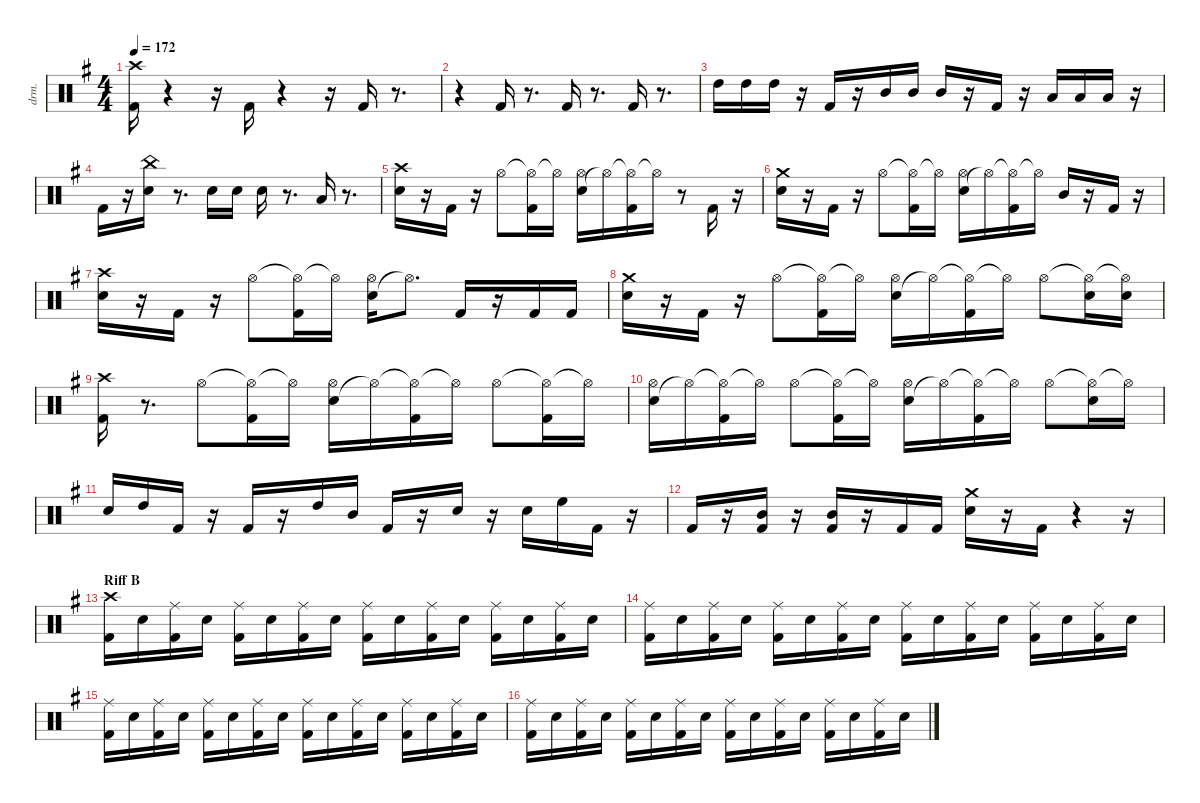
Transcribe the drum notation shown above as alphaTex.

\defaultSystemsLayout 4
\hideDynamics
\bracketExtendMode nobrackets
\otherSystemsTrackNameOrientation horizontal
\track ("Shinya" "drm.") {instrument percussion}
\staff {score}
\articulation defaults
\ts (4 4)
\tempo 172
\clef neutral
\ks eminor
("Kick (hit) 2"{acc forcenatural} "Crash high (hit)"{acc #}).16{dy fff beam Down} r.4{beam Down} r.16{beam Down} "Kick (hit) 2"{acc forcenatural}.16{beam Up} r.4{beam Up} r.16{beam Up} "Kick (hit) 2"{acc forcenatural}.16{beam Up} r.8{d beam Up} |
r.4{beam Down} "Kick (hit) 2"{acc forcenatural}.16{beam Up} r.8{d beam Up} "Kick (hit) 2"{acc forcenatural}.16{beam Up} r.8{d beam Up} "Kick (hit) 2"{acc forcenatural}.16{beam Up} r.8{d beam Up} |
"High Tom (hit)"{acc forcenatural}.16{beam Down} "High Tom (hit)"{acc forcenatural}.16{beam Down} "High Tom (hit)"{acc forcenatural}.16{beam Down} r.16{beam Down} "Kick (hit) 2"{acc forcenatural}.16{beam Up} r.16{beam Up} "Mid Tom (hit)"{acc forcenatural}.16{beam Up} "Mid Tom (hit)"{acc forcenatural}.16{beam Up} "Mid Tom (hit)"{acc forcenatural}.16{beam Up} r.16{beam Up} "Kick (hit) 2"{acc forcenatural}.16{beam Up} r.16{beam Up} "Low Tom (hit)"{acc forcenatural}.16{beam Up} "Low Tom (hit)"{acc forcenatural}.16{beam Up} "Low Tom (hit)"{acc forcenatural}.16{beam Up} r.16{beam Up} |
"Kick (hit) 2"{acc forcenatural}.16{beam Down} r.16{beam Down} ("Snare (hit) 2"{acc forcenatural} "China (hit)"{acc forcenatural}).16{beam Down} r.8{d beam Down} "Snare (hit) 2"{acc forcenatural}.16{beam Down} "Snare (hit) 2"{acc forcenatural}.16{beam Down} "Snare (hit) 2"{acc forcenatural}.16{beam Down} r.8{d beam Down} "Low Tom (hit)"{acc forcenatural}.16{beam Up} r.8{d beam Up} |
("Snare (hit) 2"{acc forcenatural} "Crash high (hit)"{acc #}).16{beam Down} r.16{beam Down} "Kick (hit) 2"{acc forcenatural}.16{beam Down} r.16{beam Down} "Hi-Hat (open)"{acc #}.8{beam Down} ("Hi-Hat (open)"{t acc #} "Kick (hit) 2"{acc forcenatural}).16{beam Down} "Hi-Hat (open)"{t acc #}.16{beam Down} ("Snare (hit) 2"{acc forcenatural} "Hi-Hat (open)"{acc #}).16{beam Down} "Hi-Hat (open)"{t acc #}.16{beam Down} ("Hi-Hat (open)"{t acc #} "Kick (hit) 2"{acc forcenatural}).16{beam Down} "Hi-Hat (open)"{t acc #}.16{beam Down} r.8{beam Down} "Kick (hit) 2"{acc forcenatural}.16{beam Up} r.16{beam Up} |
("Snare (hit) 2"{acc forcenatural} "Crash medium (hit)"{acc forcenatural}).16{beam Down} r.16{beam Down} "Kick (hit) 2"{acc forcenatural}.16{beam Down} r.16{beam Down} "Hi-Hat (open)"{acc #}.8{beam Down} ("Hi-Hat (open)"{t acc #} "Kick (hit) 2"{acc forcenatural}).16{beam Down} "Hi-Hat (open)"{t acc #}.16{beam Down} ("Snare (hit) 2"{acc forcenatural} "Hi-Hat (open)"{acc #}).16{beam Down} "Hi-Hat (open)"{t acc #}.16{beam Down} ("Hi-Hat (open)"{t acc #} "Kick (hit) 2"{acc forcenatural}).16{beam Down} "Hi-Hat (open)"{t acc #}.16{beam Down} "Mid Tom (hit)"{acc forcenatural}.16{beam Up} r.16{beam Up} "Kick (hit) 2"{acc forcenatural}.16{beam Up} r.16{beam Up} |
("Snare (hit) 2"{acc forcenatural} "Crash high (hit)"{acc #}).16{beam Down} r.16{beam Down} "Kick (hit) 2"{acc forcenatural}.16{beam Down} r.16{beam Down} "Hi-Hat (open)"{acc #}.8{beam Down} ("Hi-Hat (open)"{t acc #} "Kick (hit) 2"{acc forcenatural}).16{beam Down} "Hi-Hat (open)"{t acc #}.16{beam Down} ("Snare (hit) 2"{acc forcenatural} "Hi-Hat (open)"{acc #}).16{beam Down} "Hi-Hat (open)"{t acc #}.8{d beam Down} "Kick (hit) 2"{acc forcenatural}.16{beam Up} r.16{beam Up} "Kick (hit) 2"{acc forcenatural}.16{beam Up} "Kick (hit) 2"{acc forcenatural}.16{beam Up} |
("Snare (hit) 2"{acc forcenatural} "Crash medium (hit)"{acc forcenatural}).16{beam Down} r.16{beam Down} "Kick (hit) 2"{acc forcenatural}.16{beam Down} r.16{beam Down} "Hi-Hat (open)"{acc #}.8{beam Down} ("Hi-Hat (open)"{t acc #} "Kick (hit) 2"{acc forcenatural}).16{beam Down} "Hi-Hat (open)"{t acc #}.16{beam Down} ("Snare (hit) 2"{acc forcenatural} "Hi-Hat (open)"{acc #}).16{beam Down} "Hi-Hat (open)"{t acc #}.16{beam Down} ("Hi-Hat (open)"{t acc #} "Kick (hit) 2"{acc forcenatural}).16{beam Down} "Hi-Hat (open)"{t acc #}.16{beam Down} "Hi-Hat (open)"{acc #}.8{beam Down} ("Hi-Hat (open)"{t acc #} "Snare (hit) 2"{acc forcenatural}).16{beam Down} ("Hi-Hat (open)"{t acc #} "Snare (hit) 2"{acc forcenatural}).16{beam Down} |
("Kick (hit) 2"{acc forcenatural} "Crash high (hit)"{acc #}).16{beam Down} r.8{d beam Down} "Hi-Hat (open)"{acc #}.8{beam Down} ("Hi-Hat (open)"{t acc #} "Kick (hit) 2"{acc forcenatural}).16{beam Down} "Hi-Hat (open)"{t acc #}.16{beam Down} ("Snare (hit) 2"{acc forcenatural} "Hi-Hat (open)"{acc #}).16{beam Down} "Hi-Hat (open)"{t acc #}.16{beam Down} ("Hi-Hat (open)"{t acc #} "Kick (hit) 2"{acc forcenatural}).16{beam Down} "Hi-Hat (open)"{t acc #}.16{beam Down} "Hi-Hat (open)"{acc #}.8{beam Down} ("Hi-Hat (open)"{t acc #} "Kick (hit) 2"{acc forcenatural}).16{beam Down} "Hi-Hat (open)"{t acc #}.16{beam Down} |
("Snare (hit) 2"{acc forcenatural} "Hi-Hat (open)"{acc #}).16{beam Down} "Hi-Hat (open)"{t acc #}.16{beam Down} ("Hi-Hat (open)"{t acc #} "Kick (hit) 2"{acc forcenatural}).16{beam Down} "Hi-Hat (open)"{t acc #}.16{beam Down} "Hi-Hat (open)"{acc #}.8{beam Down} ("Hi-Hat (open)"{t acc #} "Kick (hit) 2"{acc forcenatural}).16{beam Down} "Hi-Hat (open)"{t acc #}.16{beam Down} ("Snare (hit) 2"{acc forcenatural} "Hi-Hat (open)"{acc #}).16{beam Down} "Hi-Hat (open)"{t acc #}.16{beam Down} ("Hi-Hat (open)"{t acc #} "Kick (hit) 2"{acc forcenatural}).16{beam Down} "Hi-Hat (open)"{t acc #}.16{beam Down} "Hi-Hat (open)"{acc #}.8{beam Down} ("Hi-Hat (open)"{t acc #} "Snare (hit) 2"{acc forcenatural}).16{beam Down} "Hi-Hat (open)"{t acc #}.16{beam Down} |
"Snare (hit) 2"{acc forcenatural}.16{beam Up} "High Tom (hit)"{acc forcenatural}.16{beam Up} "Kick (hit) 2"{acc forcenatural}.16{beam Up} r.16{beam Up} "Kick (hit) 2"{acc forcenatural}.16{beam Up} r.16{beam Up} "High Tom (hit)"{acc forcenatural}.16{beam Up} "Mid Tom (hit)"{acc forcenatural}.16{beam Up} "Kick (hit) 2"{acc forcenatural}.16{beam Up} r.16{beam Up} "Snare (hit) 2"{acc forcenatural}.16{beam Up} r.16{beam Up} "Snare (hit) 2"{acc forcenatural}.16{beam Down} "High Floor Tom (hit)"{acc forcenatural}.16{beam Down} "Kick (hit) 2"{acc forcenatural}.16{beam Down} r.16{beam Down} |
"Kick (hit) 2"{acc forcenatural}.16{beam Up} r.16{beam Up} ("Kick (hit) 2"{acc forcenatural} "Mid Tom (hit)"{acc forcenatural}).16{beam Up} r.16{beam Up} ("Kick (hit) 2"{acc forcenatural} "Mid Tom (hit)"{acc forcenatural}).16{beam Up} r.16{beam Up} "Kick (hit) 2"{acc forcenatural}.16{beam Up} "Kick (hit) 2"{acc forcenatural}.16{beam Up} ("Snare (hit) 2"{acc forcenatural} "Crash medium (hit)"{acc forcenatural}).16{beam Down} r.16{beam Down} "Kick (hit) 2"{acc forcenatural}.16{beam Down} r.4{beam Down} r.16{beam Down} |
\section ("" "Riff B")
("Kick (hit) 2"{acc forcenatural} "Crash high (hit)"{acc #}).16{beam Down} "Snare (hit) 2"{acc forcenatural}.16{beam Down} ("Kick (hit) 2"{acc forcenatural} "Ride (middle)"{acc #}).16{beam Down} "Snare (hit) 2"{acc forcenatural}.16{beam Down} ("Kick (hit) 2"{acc forcenatural} "Ride (middle)"{acc #}).16{beam Down} "Snare (hit) 2"{acc forcenatural}.16{beam Down} ("Kick (hit) 2"{acc forcenatural} "Ride (middle)"{acc #}).16{beam Down} "Snare (hit) 2"{acc forcenatural}.16{beam Down} ("Kick (hit) 2"{acc forcenatural} "Ride (middle)"{acc #}).16{beam Down} "Snare (hit) 2"{acc forcenatural}.16{beam Down} ("Kick (hit) 2"{acc forcenatural} "Ride (middle)"{acc #}).16{beam Down} "Snare (hit) 2"{acc forcenatural}.16{beam Down} ("Kick (hit) 2"{acc forcenatural} "Ride (middle)"{acc #}).16{beam Down} "Snare (hit) 2"{acc forcenatural}.16{beam Down} ("Kick (hit) 2"{acc forcenatural} "Ride (middle)"{acc #}).16{beam Down} "Snare (hit) 2"{acc forcenatural}.16{beam Down} |
("Kick (hit) 2"{acc forcenatural} "Ride (middle)"{acc #}).16{beam Down} "Snare (hit) 2"{acc forcenatural}.16{beam Down} ("Kick (hit) 2"{acc forcenatural} "Ride (middle)"{acc #}).16{beam Down} "Snare (hit) 2"{acc forcenatural}.16{beam Down} ("Kick (hit) 2"{acc forcenatural} "Ride (middle)"{acc #}).16{beam Down} "Snare (hit) 2"{acc forcenatural}.16{beam Down} ("Kick (hit) 2"{acc forcenatural} "Ride (middle)"{acc #}).16{beam Down} "Snare (hit) 2"{acc forcenatural}.16{beam Down} ("Kick (hit) 2"{acc forcenatural} "Ride (middle)"{acc #}).16{beam Down} "Snare (hit) 2"{acc forcenatural}.16{beam Down} ("Kick (hit) 2"{acc forcenatural} "Ride (middle)"{acc #}).16{beam Down} "Snare (hit) 2"{acc forcenatural}.16{beam Down} ("Kick (hit) 2"{acc forcenatural} "Ride (middle)"{acc #}).16{beam Down} "Snare (hit) 2"{acc forcenatural}.16{beam Down} ("Kick (hit) 2"{acc forcenatural} "Ride (middle)"{acc #}).16{beam Down} "Snare (hit) 2"{acc forcenatural}.16{beam Down} |
("Kick (hit) 2"{acc forcenatural} "Ride (middle)"{acc #}).16{beam Down} "Snare (hit) 2"{acc forcenatural}.16{beam Down} ("Kick (hit) 2"{acc forcenatural} "Ride (middle)"{acc #}).16{beam Down} "Snare (hit) 2"{acc forcenatural}.16{beam Down} ("Kick (hit) 2"{acc forcenatural} "Ride (middle)"{acc #}).16{beam Down} "Snare (hit) 2"{acc forcenatural}.16{beam Down} ("Kick (hit) 2"{acc forcenatural} "Ride (middle)"{acc #}).16{beam Down} "Snare (hit) 2"{acc forcenatural}.16{beam Down} ("Kick (hit) 2"{acc forcenatural} "Ride (middle)"{acc #}).16{beam Down} "Snare (hit) 2"{acc forcenatural}.16{beam Down} ("Kick (hit) 2"{acc forcenatural} "Ride (middle)"{acc #}).16{beam Down} "Snare (hit) 2"{acc forcenatural}.16{beam Down} ("Kick (hit) 2"{acc forcenatural} "Ride (middle)"{acc #}).16{beam Down} "Snare (hit) 2"{acc forcenatural}.16{beam Down} ("Kick (hit) 2"{acc forcenatural} "Ride (middle)"{acc #}).16{beam Down} "Snare (hit) 2"{acc forcenatural}.16{beam Down} |
("Kick (hit) 2"{acc forcenatural} "Ride (middle)"{acc #}).16{beam Down} "Snare (hit) 2"{acc forcenatural}.16{beam Down} ("Kick (hit) 2"{acc forcenatural} "Ride (middle)"{acc #}).16{beam Down} "Snare (hit) 2"{acc forcenatural}.16{beam Down} ("Kick (hit) 2"{acc forcenatural} "Ride (middle)"{acc #}).16{beam Down} "Snare (hit) 2"{acc forcenatural}.16{beam Down} ("Kick (hit) 2"{acc forcenatural} "Ride (middle)"{acc #}).16{beam Down} "Snare (hit) 2"{acc forcenatural}.16{beam Down} ("Kick (hit) 2"{acc forcenatural} "Ride (middle)"{acc #}).16{beam Down} "Snare (hit) 2"{acc forcenatural}.16{beam Down} ("Kick (hit) 2"{acc forcenatural} "Ride (middle)"{acc #}).16{beam Down} "Snare (hit) 2"{acc forcenatural}.16{beam Down} ("Kick (hit) 2"{acc forcenatural} "Ride (middle)"{acc #}).16{beam Down} "Snare (hit) 2"{acc forcenatural}.16{beam Down} ("Kick (hit) 2"{acc forcenatural} "Ride (middle)"{acc #}).16{beam Down} "Snare (hit) 2"{acc forcenatural}.16{beam Down}
